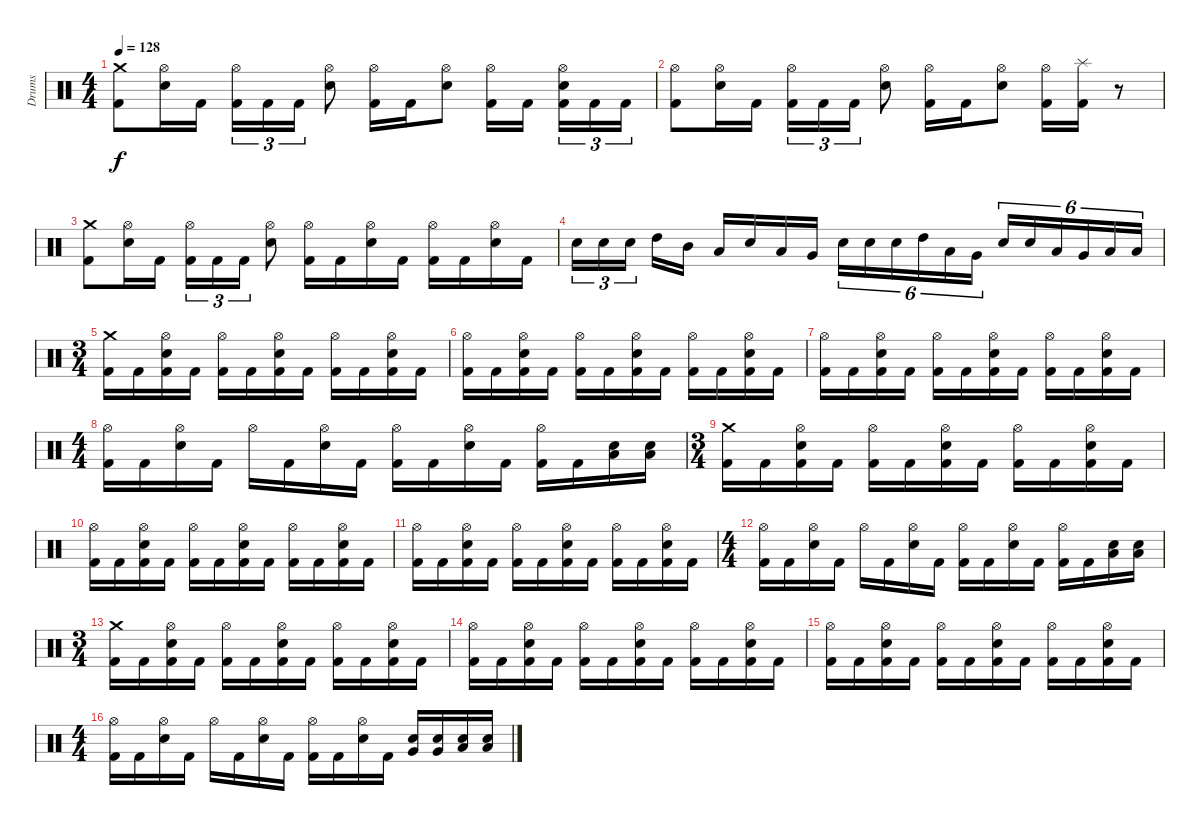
\track ("Drums" "Drums") {instrument percussion}
\staff {score}
\articulation defaults
\ts (4 4)
\tempo 128
\clef neutral
\ks c
("Kick (hit) 2" "Crash medium (hit)").8{dy f} ("Electric Snare (hit)" "Hi-Hat (open)").16 "Kick (hit) 2".16 ("Kick (hit) 2" "Hi-Hat (open)").16{tu (3 2)} "Kick (hit) 2".16{tu (3 2)} "Kick (hit) 2".16{tu (3 2)} ("Electric Snare (hit)" "Hi-Hat (open)").8 ("Kick (hit) 2" "Hi-Hat (open)").16 "Kick (hit) 2".16 ("Electric Snare (hit)" "Hi-Hat (open)").8 ("Kick (hit) 2" "Hi-Hat (open)").16 "Kick (hit) 2".16 ("Kick (hit) 2" "Electric Snare (hit)" "Hi-Hat (open)").16{tu (3 2)} "Kick (hit) 2".16{tu (3 2)} "Kick (hit) 2".16{tu (3 2)} |
("Hi-Hat (open)" "Kick (hit) 2").8 ("Electric Snare (hit)" "Hi-Hat (open)").16 "Kick (hit) 2".16 ("Kick (hit) 2" "Hi-Hat (open)").16{tu (3 2)} "Kick (hit) 2".16{tu (3 2)} "Kick (hit) 2".16{tu (3 2)} ("Electric Snare (hit)" "Hi-Hat (open)").8 ("Kick (hit) 2" "Hi-Hat (open)").16 "Kick (hit) 2".16 ("Electric Snare (hit)" "Hi-Hat (open)").8 ("Kick (hit) 2" "Hi-Hat (open)").16 ("Splash (hit)" "Kick (hit) 2").16 r.8 |
("Kick (hit) 2" "Crash medium (hit)").8 ("Electric Snare (hit)" "Hi-Hat (open)").16 "Kick (hit) 2".16 ("Kick (hit) 2" "Hi-Hat (open)").16{tu (3 2)} "Kick (hit) 2".16{tu (3 2)} "Kick (hit) 2".16{tu (3 2)} ("Electric Snare (hit)" "Hi-Hat (open)").8 ("Kick (hit) 2" "Hi-Hat (open)").16 "Kick (hit) 2".16 ("Electric Snare (hit)" "Hi-Hat (open)").16 "Kick (hit) 2".16 ("Kick (hit) 2" "Hi-Hat (open)").16 "Kick (hit) 2".16 ("Electric Snare (hit)" "Hi-Hat (open)").16 "Kick (hit) 2".16 |
"Electric Snare (hit)".16{tu (3 2)} "Electric Snare (hit)".16{tu (3 2)} "Electric Snare (hit)".16{tu (3 2)} "High Tom (hit)".16 "Mid Tom (hit)".16 "Low Tom (hit)".16 "Electric Snare (hit)".16 "Low Tom (hit)".16 "Very Low Tom (hit)".16 "Electric Snare (hit)".16{tu (6 4)} "Electric Snare (hit)".16{tu (6 4)} "Electric Snare (hit)".16{tu (6 4)} "High Tom (hit)".16{tu (6 4)} "Low Tom (hit)".16{tu (6 4)} "Very Low Tom (hit)".16{tu (6 4)} "Electric Snare (hit)".16{tu (6 4)} "Electric Snare (hit)".16{tu (6 4)} "Low Tom (hit)".16{tu (6 4)} "Very Low Tom (hit)".16{tu (6 4)} "Low Floor Tom (hit)".16{tu (6 4)} "Low Floor Tom (hit)".16{tu (6 4)} |
\ts (3 4)
("Crash medium (hit)" "Kick (hit) 2").16 "Kick (hit) 2".16 ("Kick (hit) 2" "Hi-Hat (open)" "Electric Snare (hit)").16 "Kick (hit) 2".16 ("Kick (hit) 2" "Hi-Hat (open)").16 "Kick (hit) 2".16 ("Kick (hit) 2" "Hi-Hat (open)" "Electric Snare (hit)").16 "Kick (hit) 2".16 ("Kick (hit) 2" "Hi-Hat (open)").16 "Kick (hit) 2".16 ("Kick (hit) 2" "Hi-Hat (open)" "Electric Snare (hit)").16 "Kick (hit) 2".16 |
("Hi-Hat (open)" "Kick (hit) 2").16 "Kick (hit) 2".16 ("Kick (hit) 2" "Hi-Hat (open)" "Electric Snare (hit)").16 "Kick (hit) 2".16 ("Kick (hit) 2" "Hi-Hat (open)").16 "Kick (hit) 2".16 ("Kick (hit) 2" "Hi-Hat (open)" "Electric Snare (hit)").16 "Kick (hit) 2".16 ("Kick (hit) 2" "Hi-Hat (open)").16 "Kick (hit) 2".16 ("Kick (hit) 2" "Hi-Hat (open)" "Electric Snare (hit)").16 "Kick (hit) 2".16 |
("Hi-Hat (open)" "Kick (hit) 2").16 "Kick (hit) 2".16 ("Kick (hit) 2" "Hi-Hat (open)" "Electric Snare (hit)").16 "Kick (hit) 2".16 ("Kick (hit) 2" "Hi-Hat (open)").16 "Kick (hit) 2".16 ("Kick (hit) 2" "Hi-Hat (open)" "Electric Snare (hit)").16 "Kick (hit) 2".16 ("Kick (hit) 2" "Hi-Hat (open)").16 "Kick (hit) 2".16 ("Kick (hit) 2" "Hi-Hat (open)" "Electric Snare (hit)").16 "Kick (hit) 2".16 |
\ts (4 4)
("Hi-Hat (open)" "Kick (hit) 2").16 "Kick (hit) 2".16 ("Hi-Hat (open)" "Electric Snare (hit)").16 "Kick (hit) 2".16 "Hi-Hat (open)".16 "Kick (hit) 2".16 ("Hi-Hat (open)" "Electric Snare (hit)").16 "Kick (hit) 2".16 ("Hi-Hat (open)" "Kick (hit) 2").16 "Kick (hit) 2".16 ("Hi-Hat (open)" "Electric Snare (hit)").16 "Kick (hit) 2".16 ("Hi-Hat (open)" "Kick (hit) 2").16 "Kick (hit) 2".16 ("Low Floor Tom (hit)" "Electric Snare (hit)").16 ("Electric Snare (hit)" "Low Floor Tom (hit)").16 |
\ts (3 4)
("Crash medium (hit)" "Kick (hit) 2").16 "Kick (hit) 2".16 ("Kick (hit) 2" "Hi-Hat (open)" "Electric Snare (hit)").16 "Kick (hit) 2".16 ("Kick (hit) 2" "Hi-Hat (open)").16 "Kick (hit) 2".16 ("Kick (hit) 2" "Hi-Hat (open)" "Electric Snare (hit)").16 "Kick (hit) 2".16 ("Kick (hit) 2" "Hi-Hat (open)").16 "Kick (hit) 2".16 ("Kick (hit) 2" "Hi-Hat (open)" "Electric Snare (hit)").16 "Kick (hit) 2".16 |
("Hi-Hat (open)" "Kick (hit) 2").16 "Kick (hit) 2".16 ("Kick (hit) 2" "Hi-Hat (open)" "Electric Snare (hit)").16 "Kick (hit) 2".16 ("Kick (hit) 2" "Hi-Hat (open)").16 "Kick (hit) 2".16 ("Kick (hit) 2" "Hi-Hat (open)" "Electric Snare (hit)").16 "Kick (hit) 2".16 ("Kick (hit) 2" "Hi-Hat (open)").16 "Kick (hit) 2".16 ("Kick (hit) 2" "Hi-Hat (open)" "Electric Snare (hit)").16 "Kick (hit) 2".16 |
("Hi-Hat (open)" "Kick (hit) 2").16 "Kick (hit) 2".16 ("Kick (hit) 2" "Hi-Hat (open)" "Electric Snare (hit)").16 "Kick (hit) 2".16 ("Kick (hit) 2" "Hi-Hat (open)").16 "Kick (hit) 2".16 ("Kick (hit) 2" "Hi-Hat (open)" "Electric Snare (hit)").16 "Kick (hit) 2".16 ("Kick (hit) 2" "Hi-Hat (open)").16 "Kick (hit) 2".16 ("Kick (hit) 2" "Hi-Hat (open)" "Electric Snare (hit)").16 "Kick (hit) 2".16 |
\ts (4 4)
("Hi-Hat (open)" "Kick (hit) 2").16 "Kick (hit) 2".16 ("Hi-Hat (open)" "Electric Snare (hit)").16 "Kick (hit) 2".16 "Hi-Hat (open)".16 "Kick (hit) 2".16 ("Hi-Hat (open)" "Electric Snare (hit)").16 "Kick (hit) 2".16 ("Hi-Hat (open)" "Kick (hit) 2").16 "Kick (hit) 2".16 ("Hi-Hat (open)" "Electric Snare (hit)").16 "Kick (hit) 2".16 ("Hi-Hat (open)" "Kick (hit) 2").16 "Kick (hit) 2".16 ("Low Floor Tom (hit)" "Electric Snare (hit)").16 ("Electric Snare (hit)" "Low Floor Tom (hit)").16 |
\ts (3 4)
("Crash medium (hit)" "Kick (hit) 2").16 "Kick (hit) 2".16 ("Kick (hit) 2" "Hi-Hat (open)" "Electric Snare (hit)").16 "Kick (hit) 2".16 ("Kick (hit) 2" "Hi-Hat (open)").16 "Kick (hit) 2".16 ("Kick (hit) 2" "Hi-Hat (open)" "Electric Snare (hit)").16 "Kick (hit) 2".16 ("Kick (hit) 2" "Hi-Hat (open)").16 "Kick (hit) 2".16 ("Kick (hit) 2" "Hi-Hat (open)" "Electric Snare (hit)").16 "Kick (hit) 2".16 |
("Hi-Hat (open)" "Kick (hit) 2").16 "Kick (hit) 2".16 ("Kick (hit) 2" "Hi-Hat (open)" "Electric Snare (hit)").16 "Kick (hit) 2".16 ("Kick (hit) 2" "Hi-Hat (open)").16 "Kick (hit) 2".16 ("Kick (hit) 2" "Hi-Hat (open)" "Electric Snare (hit)").16 "Kick (hit) 2".16 ("Kick (hit) 2" "Hi-Hat (open)").16 "Kick (hit) 2".16 ("Kick (hit) 2" "Hi-Hat (open)" "Electric Snare (hit)").16 "Kick (hit) 2".16 |
("Hi-Hat (open)" "Kick (hit) 2").16 "Kick (hit) 2".16 ("Kick (hit) 2" "Hi-Hat (open)" "Electric Snare (hit)").16 "Kick (hit) 2".16 ("Kick (hit) 2" "Hi-Hat (open)").16 "Kick (hit) 2".16 ("Kick (hit) 2" "Hi-Hat (open)" "Electric Snare (hit)").16 "Kick (hit) 2".16 ("Kick (hit) 2" "Hi-Hat (open)").16 "Kick (hit) 2".16 ("Kick (hit) 2" "Hi-Hat (open)" "Electric Snare (hit)").16 "Kick (hit) 2".16 |
\ts (4 4)
("Hi-Hat (open)" "Kick (hit) 2").16 "Kick (hit) 2".16 ("Hi-Hat (open)" "Electric Snare (hit)").16 "Kick (hit) 2".16 "Hi-Hat (open)".16 "Kick (hit) 2".16 ("Hi-Hat (open)" "Electric Snare (hit)").16 "Kick (hit) 2".16 ("Hi-Hat (open)" "Kick (hit) 2").16 "Kick (hit) 2".16 ("Hi-Hat (open)" "Electric Snare (hit)").16 "Kick (hit) 2".16 ("Very Low Tom (hit)" "Electric Snare (hit)").16 ("Very Low Tom (hit)" "Electric Snare (hit)").16 ("Low Floor Tom (hit)" "Electric Snare (hit)").16 ("Electric Snare (hit)" "Low Floor Tom (hit)").16
